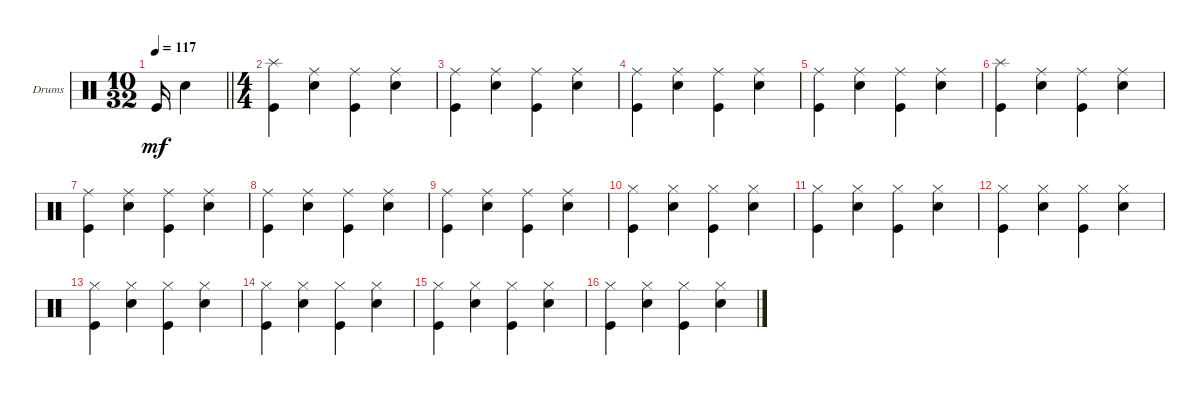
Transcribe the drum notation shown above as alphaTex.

\defaultSystemsLayout 4
\bracketExtendMode groupsimilarinstruments
\firstSystemTrackNameOrientation horizontal
\otherSystemsTrackNameOrientation horizontal
\track ("Drumkit" "Drums") {instrument percussion}
\staff {score}
\articulation defaults
\ts (10 32)
\tempo 117
\clef neutral
\barLineRight lightlight
\ks c "Kick (hit)".16{dy mf} "Snare (hit) 2".4
|
\ts (4 4)
\scale
0.474178 ("Kick (hit)" "Splash (hit)").4 ("Ride (middle)" "Snare (hit) 2").4 ("Kick (hit)" "Ride (middle)").4 ("Ride (middle)" "Snare (hit) 2").4 |
\scale
0.262911 ("Kick (hit)" "Ride (middle)").4 ("Ride (middle)" "Snare (hit) 2").4 ("Kick (hit)" "Ride (middle)").4 ("Ride (middle)" "Snare (hit) 2").4 |
\scale
0.262911 ("Kick (hit)" "Ride (middle)").4 ("Ride (middle)" "Snare (hit) 2").4 ("Kick (hit)" "Ride (middle)").4 ("Ride (middle)" "Snare (hit) 2").4 |
\scale
0.333333 ("Kick (hit)" "Ride (middle)").4 ("Ride (middle)" "Snare (hit) 2").4 ("Kick (hit)" "Ride (middle)").4 ("Ride (middle)" "Snare (hit) 2").4 |
\scale
0.333333 ("Kick (hit)" "Splash (hit)").4 ("Ride (middle)" "Snare (hit) 2").4 ("Kick (hit)" "Ride (middle)").4 ("Ride (middle)" "Snare (hit) 2").4 |
\scale
0.333333 ("Kick (hit)" "Ride (middle)").4 ("Ride (middle)" "Snare (hit) 2").4 ("Kick (hit)" "Ride (middle)").4 ("Ride (middle)" "Snare (hit) 2").4 |
("Kick (hit)" "Ride (middle)").4 ("Ride (middle)" "Snare (hit) 2").4 ("Kick (hit)" "Ride (middle)").4 ("Ride (middle)" "Snare (hit) 2").4 |
("Kick (hit)" "Ride (middle)").4 ("Ride (middle)" "Snare (hit) 2").4 ("Kick (hit)" "Ride (middle)").4 ("Ride (middle)" "Snare (hit) 2").4 |
("Kick (hit)" "Hi-Hat (closed)").4 ("Snare (hit) 2" "Hi-Hat (closed)").4 ("Kick (hit)" "Hi-Hat (closed)").4 ("Snare (hit) 2" "Hi-Hat (closed)").4 |
("Kick (hit)" "Hi-Hat (closed)").4 ("Snare (hit) 2" "Hi-Hat (closed)").4 ("Kick (hit)" "Hi-Hat (closed)").4 ("Snare (hit) 2" "Hi-Hat (closed)").4 |
("Kick (hit)" "Hi-Hat (closed)").4 ("Snare (hit) 2" "Hi-Hat (closed)").4 ("Kick (hit)" "Hi-Hat (closed)").4 ("Snare (hit) 2" "Hi-Hat (closed)").4 |
("Kick (hit)" "Hi-Hat (closed)").4 ("Snare (hit) 2" "Hi-Hat (closed)").4 ("Kick (hit)" "Hi-Hat (closed)").4 ("Snare (hit) 2" "Hi-Hat (closed)").4 |
("Kick (hit)" "Hi-Hat (closed)").4 ("Snare (hit) 2" "Hi-Hat (closed)").4 ("Kick (hit)" "Hi-Hat (closed)").4 ("Snare (hit) 2" "Hi-Hat (closed)").4 |
("Kick (hit)" "Hi-Hat (closed)").4 ("Snare (hit) 2" "Hi-Hat (closed)").4 ("Kick (hit)" "Hi-Hat (closed)").4 ("Snare (hit) 2" "Hi-Hat (closed)").4 |
("Kick (hit)" "Hi-Hat (closed)").4 ("Snare (hit) 2" "Hi-Hat (closed)").4 ("Kick (hit)" "Hi-Hat (closed)").4 ("Snare (hit) 2" "Hi-Hat (closed)").4
